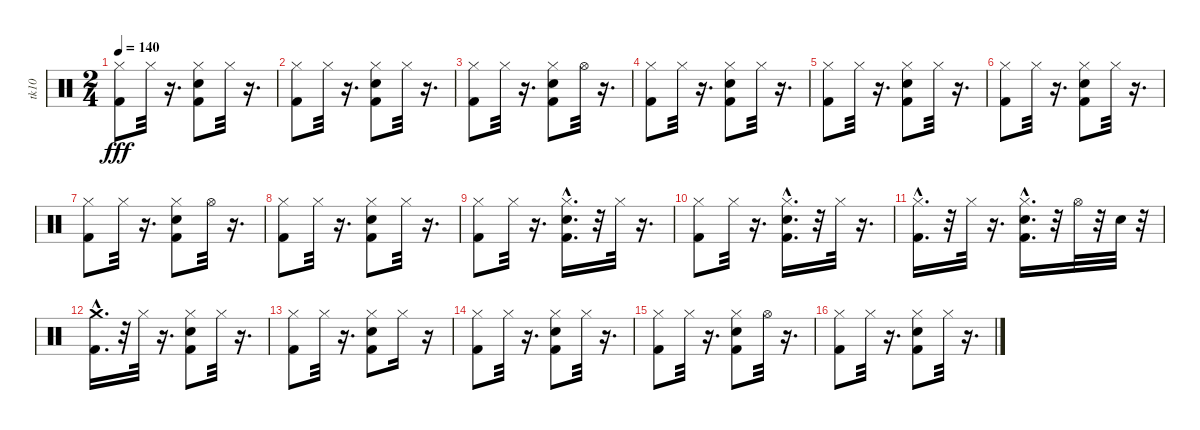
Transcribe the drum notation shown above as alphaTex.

\track ("tk10" "tk10") {instrument percussion}
\staff {score}
\articulation defaults
\ts (2 4)
\tempo 140
\clef neutral
\ks c
("Kick (hit) 2" "Hi-Hat (closed)").8{dy fff} "Hi-Hat (closed)".32 r.16{d} ("Kick (hit) 2" "Hi-Hat (closed)" "Snare (hit) 2").8 "Hi-Hat (closed)".32 r.16{d} |
("Kick (hit) 2" "Hi-Hat (closed)").8 "Hi-Hat (closed)".32 r.16{d} ("Hi-Hat (closed)" "Snare (hit) 2" "Kick (hit) 2").8 "Hi-Hat (closed)".32 r.16{d} |
("Kick (hit) 2" "Hi-Hat (closed)").8 "Hi-Hat (closed)".32 r.16{d} ("Snare (hit) 2" "Kick (hit) 2" "Hi-Hat (closed)").8 "Hi-Hat (open)".32 r.16{d} |
("Kick (hit) 2" "Hi-Hat (closed)").8 "Hi-Hat (closed)".32 r.16{d} ("Snare (hit) 2" "Kick (hit) 2" "Hi-Hat (closed)").8 "Hi-Hat (closed)".32 r.16{d} |
("Kick (hit) 2" "Hi-Hat (closed)").8 "Hi-Hat (closed)".32 r.16{d} ("Snare (hit) 2" "Kick (hit) 2" "Hi-Hat (closed)").8 "Hi-Hat (closed)".32 r.16{d} |
("Kick (hit) 2" "Hi-Hat (closed)").8 "Hi-Hat (closed)".32 r.16{d} ("Kick (hit) 2" "Hi-Hat (closed)" "Snare (hit) 2").8 "Hi-Hat (closed)".32 r.16{d} |
("Kick (hit) 2" "Hi-Hat (closed)").8 "Hi-Hat (closed)".32 r.16{d} ("Kick (hit) 2" "Hi-Hat (closed)" "Snare (hit) 2").8 "Hi-Hat (open)".32 r.16{d} |
("Kick (hit) 2" "Hi-Hat (closed)").8 "Hi-Hat (closed)".32 r.16{d} ("Snare (hit) 2" "Kick (hit) 2" "Hi-Hat (closed)").8 "Hi-Hat (closed)".32 r.16{d} |
("Kick (hit) 2" "Hi-Hat (closed)").8 "Hi-Hat (closed)".32 r.16{d} ("Snare (hit) 2"{hac} "Kick (hit) 2"{hac} "Hi-Hat (closed)").16{d} r.32 "Hi-Hat (closed)".32 r.16{d} |
("Kick (hit) 2" "Hi-Hat (closed)").8 "Hi-Hat (closed)".32 r.16{d} ("Snare (hit) 2"{hac} "Kick (hit) 2"{hac} "Hi-Hat (closed)").16{d} r.32 "Hi-Hat (closed)".32 r.16{d} |
("Kick (hit) 2"{hac} "Hi-Hat (closed)").16{d} r.32 "Hi-Hat (closed)".32 r.16{d} ("Snare (hit) 2"{hac} "Kick (hit) 2"{hac} "Hi-Hat (closed)").16{d} r.32 "Hi-Hat (open)".32 r.32 "Snare (hit) 2".32 r.32 |
("Crash medium (hit)" "Kick (hit) 2"{hac}).16{d} r.32 "Hi-Hat (closed)".32 r.16{d} ("Snare (hit) 2" "Hi-Hat (closed)" "Kick (hit) 2").8 "Hi-Hat (closed)".32 r.16{d} |
("Kick (hit) 2" "Hi-Hat (closed)").8 "Hi-Hat (closed)".32 r.16{d} ("Snare (hit) 2" "Kick (hit) 2" "Hi-Hat (closed)").8 "Hi-Hat (closed)".16 r.16 |
("Kick (hit) 2" "Hi-Hat (closed)").8 "Hi-Hat (closed)".32 r.16{d} ("Snare (hit) 2" "Kick (hit) 2" "Hi-Hat (closed)").8 "Hi-Hat (closed)".32 r.16{d} |
("Kick (hit) 2" "Hi-Hat (closed)").8 "Hi-Hat (closed)".32 r.16{d} ("Snare (hit) 2" "Hi-Hat (closed)" "Kick (hit) 2").8 "Hi-Hat (open)".32 r.16{d} |
("Kick (hit) 2" "Hi-Hat (closed)").8 "Hi-Hat (closed)".32 r.16{d} ("Hi-Hat (closed)" "Snare (hit) 2" "Kick (hit) 2").8 "Hi-Hat (closed)".32 r.16{d}
